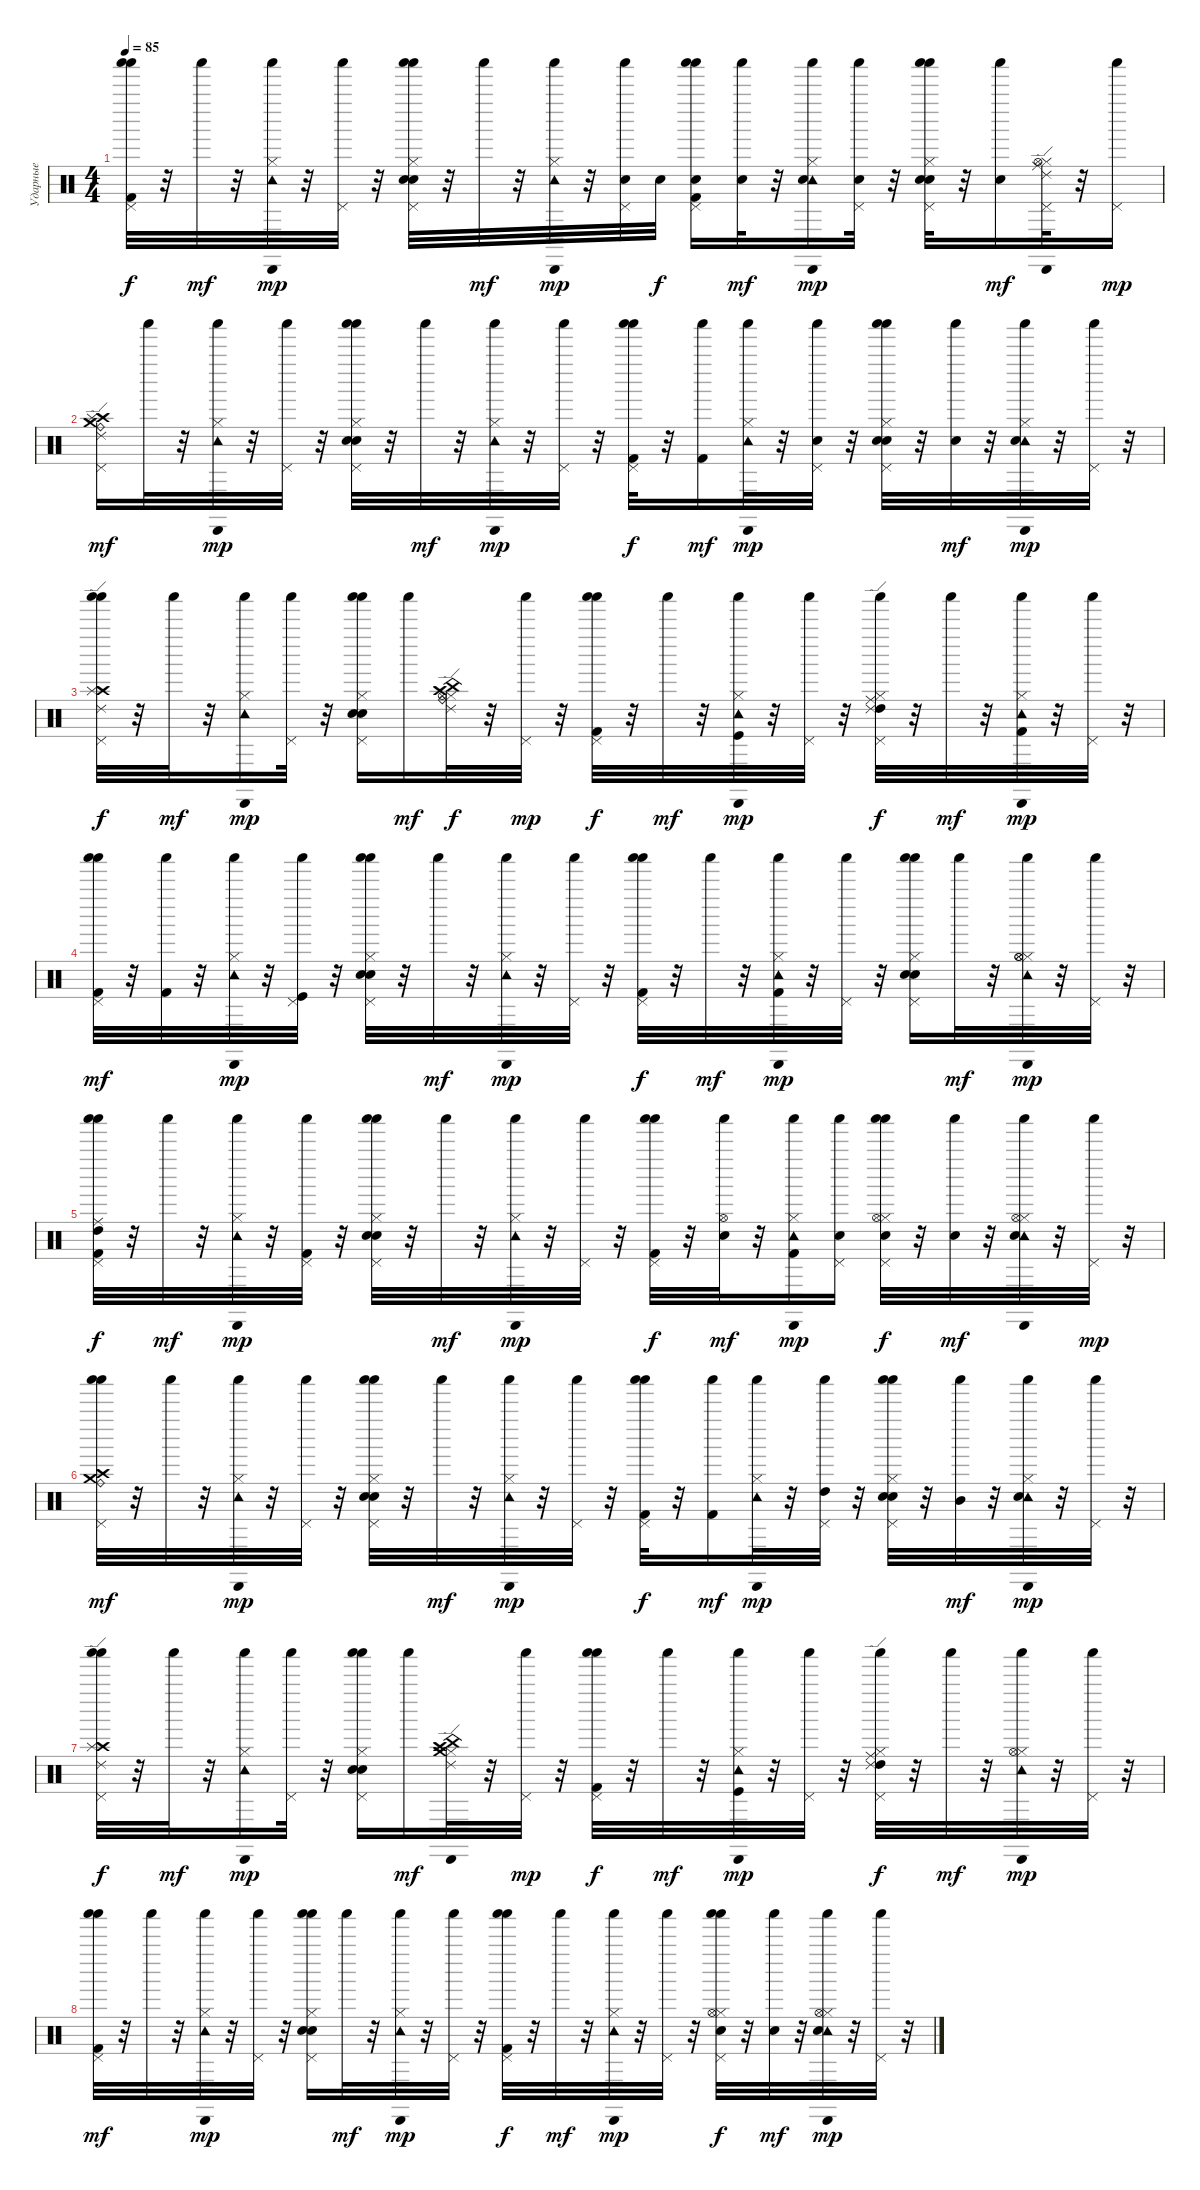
\track ("Ударные" "Ударные") {instrument percussion}
\staff {score}
\articulation defaults
\ts (4 4)
\tempo 85
\clef neutral
\ks c
("Pedal Hi-Hat (hit)" "Shaker (hit)" "Shaker (hit)" "Kick (hit) 2").32{dy f} r.32 "Shaker (hit)".32{dy mf} r.32 ("Hi-Hat (closed)" "Cabasa (hit)" "Shaker (hit)" "Tambourine (hit)").32{dy mp} r.32 ("Pedal Hi-Hat (hit)" "Shaker (hit)").32 r.32 ("Hi-Hat (closed)" "Pedal Hi-Hat (hit)" "Shaker (hit)" "Shaker (hit)" "Snare (hit) 2" "Electric Snare (hit)").32 r.32 "Shaker (hit)".32{dy mf} r.32 ("Hi-Hat (closed)" "Cabasa (hit)" "Shaker (hit)" "Tambourine (hit)").32{dy mp} r.32 ("Pedal Hi-Hat (hit)" "Shaker (hit)" "Snare (hit) 2").32 "Snare (hit) 2".32{dy f} ("Pedal Hi-Hat (hit)" "Shaker (hit)" "Shaker (hit)" "Kick (hit) 2" "Snare (hit) 2").16 ("Shaker (hit)" "Snare (hit) 2").32{dy mf} r.32 ("Hi-Hat (closed)" "Cabasa (hit)" "Shaker (hit)" "Tambourine (hit)" "Electric Snare (hit)").16{dy mp} ("Pedal Hi-Hat (hit)" "Shaker (hit)" "Snare (hit) 2").32 r.32 ("Hi-Hat (closed)" "Pedal Hi-Hat (hit)" "Shaker (hit)" "Shaker (hit)" "Snare (hit) 2" "Electric Snare (hit)").32 r.32 ("Shaker (hit)" "Snare (hit) 2").16{dy mf} ("Ride (middle)" "Hi-Hat (closed)" "Hi-Hat (open)" "Ride (edge) 2" "Cabasa (hit)" "Pedal Hi-Hat (hit)").32 r.32 ("Pedal Hi-Hat (hit)" "Shaker (hit)").16{dy mp} |
("Ride (bell)" "Crash high (hit)" "Splash (hit)" "Ride (edge) 2" "Crash medium (hit)" "Pedal Hi-Hat (hit)").16{dy mf} "Shaker (hit)".32 r.32 ("Hi-Hat (closed)" "Cabasa (hit)" "Shaker (hit)" "Tambourine (hit)").32{dy mp} r.32 ("Pedal Hi-Hat (hit)" "Shaker (hit)").32 r.32 ("Hi-Hat (closed)" "Pedal Hi-Hat (hit)" "Shaker (hit)" "Shaker (hit)" "Snare (hit) 2" "Electric Snare (hit)").32 r.32 "Shaker (hit)".32{dy mf} r.32 ("Hi-Hat (closed)" "Cabasa (hit)" "Shaker (hit)" "Tambourine (hit)").32{dy mp} r.32 ("Pedal Hi-Hat (hit)" "Shaker (hit)").32 r.32 ("Pedal Hi-Hat (hit)" "Shaker (hit)" "Shaker (hit)" "Kick (hit) 2").32{dy f} r.32 ("Shaker (hit)" "Kick (hit) 2").16{dy mf} ("Hi-Hat (closed)" "Cabasa (hit)" "Shaker (hit)" "Tambourine (hit)").32{dy mp} r.32 ("Pedal Hi-Hat (hit)" "Shaker (hit)" "Snare (hit) 2").32 r.32 ("Hi-Hat (closed)" "Pedal Hi-Hat (hit)" "Shaker (hit)" "Shaker (hit)" "Snare (hit) 2" "Electric Snare (hit)").32 r.32 ("Shaker (hit)" "Snare (hit) 2").32{dy mf} r.32 ("Hi-Hat (closed)" "Cabasa (hit)" "Shaker (hit)" "Tambourine (hit)" "Snare (hit) 2").32{dy mp} r.32 ("Pedal Hi-Hat (hit)" "Shaker (hit)").32 r.32 |
("Crash high (hit)" "Splash (hit)" "Ride (edge) 2" "Pedal Hi-Hat (hit)" "Shaker (hit)" "Shaker (hit)").32{dy f} r.32 "Shaker (hit)".32{dy mf} r.32 ("Hi-Hat (closed)" "Cabasa (hit)" "Shaker (hit)" "Tambourine (hit)").16{dy mp} ("Pedal Hi-Hat (hit)" "Shaker (hit)").32 r.32 ("Hi-Hat (closed)" "Pedal Hi-Hat (hit)" "Shaker (hit)" "Shaker (hit)" "Snare (hit) 2" "Electric Snare (hit)").16 "Shaker (hit)".16{dy mf} ("Ride (bell)" "Hi-Hat (closed)" "Hi-Hat (open)" "Crash high (hit)" "China (hit)" "Ride (edge) 2").32{dy f} r.32 ("Pedal Hi-Hat (hit)" "Shaker (hit)").32{dy mp} r.32 ("Pedal Hi-Hat (hit)" "Shaker (hit)" "Shaker (hit)" "Kick (hit) 2").32{dy f} r.32 "Shaker (hit)".32{dy mf} r.32 ("Hi-Hat (closed)" "Cabasa (hit)" "Shaker (hit)" "Kick (hit)" "Tambourine (hit)").32{dy mp} r.32 ("Pedal Hi-Hat (hit)" "Shaker (hit)").32 r.32 ("High Tom (hit)" "Ride (middle)" "Hi-Hat (closed)" "Ride (edge) 2" "Pedal Hi-Hat (hit)" "Shaker (hit)").32{dy f} r.32 "Shaker (hit)".32{dy mf} r.32 ("Hi-Hat (closed)" "Cabasa (hit)" "Shaker (hit)" "Kick (hit) 2" "Tambourine (hit)").32{dy mp} r.32 ("Pedal Hi-Hat (hit)" "Shaker (hit)").32 r.32 |
("Pedal Hi-Hat (hit)" "Shaker (hit)" "Shaker (hit)" "Kick (hit) 2").32{dy mf} r.32 ("Shaker (hit)" "Kick (hit) 2").32 r.32 ("Hi-Hat (closed)" "Cabasa (hit)" "Shaker (hit)" "Tambourine (hit)").32{dy mp} r.32 ("Pedal Hi-Hat (hit)" "Shaker (hit)" "Kick (hit)").32 r.32 ("Hi-Hat (closed)" "Pedal Hi-Hat (hit)" "Shaker (hit)" "Shaker (hit)" "Snare (hit) 2" "Electric Snare (hit)").32 r.32 "Shaker (hit)".32{dy mf} r.32 ("Hi-Hat (closed)" "Cabasa (hit)" "Shaker (hit)" "Tambourine (hit)").32{dy mp} r.32 ("Pedal Hi-Hat (hit)" "Shaker (hit)").32 r.32 ("Pedal Hi-Hat (hit)" "Shaker (hit)" "Shaker (hit)" "Kick (hit) 2").32{dy f} r.32 "Shaker (hit)".32{dy mf} r.32 ("Hi-Hat (closed)" "Cabasa (hit)" "Shaker (hit)" "Kick (hit) 2" "Tambourine (hit)").32{dy mp} r.32 ("Pedal Hi-Hat (hit)" "Shaker (hit)").32 r.32 ("Hi-Hat (closed)" "Pedal Hi-Hat (hit)" "Shaker (hit)" "Shaker (hit)" "Snare (hit) 2" "Electric Snare (hit)").16 "Shaker (hit)".32{dy mf} r.32 ("Hi-Hat (closed)" "Hi-Hat (open)" "Hi-Hat (open)" "Cabasa (hit)" "Shaker (hit)" "Tambourine (hit)").32{dy mp} r.32 ("Pedal Hi-Hat (hit)" "Shaker (hit)").32 r.32 |
("High Tom (hit)" "Ride (middle)" "Pedal Hi-Hat (hit)" "Shaker (hit)" "Shaker (hit)" "Kick (hit) 2").32{dy f} r.32 "Shaker (hit)".32{dy mf} r.32 ("Hi-Hat (closed)" "Cabasa (hit)" "Shaker (hit)" "Tambourine (hit)").32{dy mp} r.32 ("Pedal Hi-Hat (hit)" "Shaker (hit)" "Kick (hit) 2").32 r.32 ("Hi-Hat (closed)" "Pedal Hi-Hat (hit)" "Shaker (hit)" "Shaker (hit)" "Snare (hit) 2" "Electric Snare (hit)").32 r.32 "Shaker (hit)".32{dy mf} r.32 ("Hi-Hat (closed)" "Cabasa (hit)" "Shaker (hit)" "Tambourine (hit)").32{dy mp} r.32 ("Pedal Hi-Hat (hit)" "Shaker (hit)").32 r.32 ("Pedal Hi-Hat (hit)" "Shaker (hit)" "Shaker (hit)" "Kick (hit) 2").32{dy f} r.32 ("Hi-Hat (open)" "Shaker (hit)" "Snare (hit) 2").32{dy mf} r.32 ("Hi-Hat (closed)" "Cabasa (hit)" "Shaker (hit)" "Kick (hit) 2" "Tambourine (hit)").16{dy mp} ("Pedal Hi-Hat (hit)" "Shaker (hit)" "Electric Snare (hit)").16 ("Hi-Hat (closed)" "Hi-Hat (open)" "Pedal Hi-Hat (hit)" "Shaker (hit)" "Shaker (hit)" "Snare (hit) 2").32{dy f} r.32 ("Shaker (hit)" "Snare (hit) 2").32{dy mf} r.32 ("Hi-Hat (closed)" "Hi-Hat (open)" "Cabasa (hit)" "Shaker (hit)" "Tambourine (hit)" "Snare (hit) 2").32 r.32 ("Pedal Hi-Hat (hit)" "Shaker (hit)").32{dy mp} r.32 |
("Ride (bell)" "Crash high (hit)" "Crash medium (hit)" "Pedal Hi-Hat (hit)" "Shaker (hit)" "Shaker (hit)").32{dy mf} r.32 "Shaker (hit)".32 r.32 ("Hi-Hat (closed)" "Cabasa (hit)" "Shaker (hit)" "Tambourine (hit)").32{dy mp} r.32 ("Pedal Hi-Hat (hit)" "Shaker (hit)").32 r.32 ("Hi-Hat (closed)" "Pedal Hi-Hat (hit)" "Shaker (hit)" "Shaker (hit)" "Snare (hit) 2" "Electric Snare (hit)").32 r.32 "Shaker (hit)".32{dy mf} r.32 ("Hi-Hat (closed)" "Cabasa (hit)" "Shaker (hit)" "Tambourine (hit)").32{dy mp} r.32 ("Pedal Hi-Hat (hit)" "Shaker (hit)").32 r.32 ("Pedal Hi-Hat (hit)" "Shaker (hit)" "Shaker (hit)" "Kick (hit) 2").32{dy f} r.32 ("Shaker (hit)" "Kick (hit) 2").16{dy mf} ("Hi-Hat (closed)" "Cabasa (hit)" "Shaker (hit)" "Tambourine (hit)").32{dy mp} r.32 ("High Tom (hit)" "Pedal Hi-Hat (hit)" "Shaker (hit)").32 r.32 ("Hi-Hat (closed)" "Pedal Hi-Hat (hit)" "Shaker (hit)" "Shaker (hit)" "Snare (hit) 2" "Electric Snare (hit)").32 r.32 ("Mid Tom (hit)" "Shaker (hit)").32{dy mf} r.32 ("Hi-Hat (closed)" "Cabasa (hit)" "Shaker (hit)" "Tambourine (hit)" "Snare (hit) 2").32{dy mp} r.32 ("Pedal Hi-Hat (hit)" "Shaker (hit)").32 r.32 |
("Crash high (hit)" "Splash (hit)" "Ride (edge) 2" "Pedal Hi-Hat (hit)" "Shaker (hit)" "Shaker (hit)").32{dy f} r.32 "Shaker (hit)".32{dy mf} r.32 ("Hi-Hat (closed)" "Cabasa (hit)" "Shaker (hit)" "Tambourine (hit)").16{dy mp} ("Pedal Hi-Hat (hit)" "Shaker (hit)").32 r.32 ("Hi-Hat (closed)" "Pedal Hi-Hat (hit)" "Shaker (hit)" "Shaker (hit)" "Snare (hit) 2" "Electric Snare (hit)").16 "Shaker (hit)".16{dy mf} ("Hi-Hat (closed)" "Crash high (hit)" "China (hit)" "Ride (edge) 2" "Crash medium (hit)" "Cabasa (hit)").32 r.32 ("Pedal Hi-Hat (hit)" "Shaker (hit)").32{dy mp} r.32 ("Pedal Hi-Hat (hit)" "Shaker (hit)" "Shaker (hit)" "Kick (hit) 2").32{dy f} r.32 "Shaker (hit)".32{dy mf} r.32 ("Hi-Hat (closed)" "Cabasa (hit)" "Shaker (hit)" "Kick (hit)" "Tambourine (hit)").32{dy mp} r.32 ("Pedal Hi-Hat (hit)" "Shaker (hit)").32 r.32 ("High Tom (hit)" "Ride (middle)" "Hi-Hat (closed)" "Ride (edge) 2" "Pedal Hi-Hat (hit)" "Shaker (hit)").32{dy f} r.32 "Shaker (hit)".32{dy mf} r.32 ("Hi-Hat (closed)" "Hi-Hat (open)" "Cabasa (hit)" "Shaker (hit)" "Tambourine (hit)").32{dy mp} r.32 ("Pedal Hi-Hat (hit)" "Shaker (hit)").32 r.32 |
("Pedal Hi-Hat (hit)" "Shaker (hit)" "Shaker (hit)" "Kick (hit) 2").32{dy mf} r.32 "Shaker (hit)".32 r.32 ("Hi-Hat (closed)" "Cabasa (hit)" "Shaker (hit)" "Tambourine (hit)").32{dy mp} r.32 ("Pedal Hi-Hat (hit)" "Shaker (hit)").32 r.32 ("Hi-Hat (closed)" "Pedal Hi-Hat (hit)" "Shaker (hit)" "Shaker (hit)" "Snare (hit) 2" "Electric Snare (hit)").16 "Shaker (hit)".32{dy mf} r.32 ("Hi-Hat (closed)" "Cabasa (hit)" "Shaker (hit)" "Tambourine (hit)").32{dy mp} r.32 ("Pedal Hi-Hat (hit)" "Shaker (hit)").32 r.32 ("Pedal Hi-Hat (hit)" "Shaker (hit)" "Shaker (hit)" "Kick (hit) 2").32{dy f} r.32 "Shaker (hit)".32{dy mf} r.32 ("Hi-Hat (closed)" "Cabasa (hit)" "Shaker (hit)" "Tambourine (hit)").32{dy mp} r.32 ("Pedal Hi-Hat (hit)" "Shaker (hit)").32 r.32 ("Hi-Hat (closed)" "Hi-Hat (open)" "Pedal Hi-Hat (hit)" "Shaker (hit)" "Shaker (hit)" "Snare (hit) 2").32{dy f} r.32 ("Shaker (hit)" "Snare (hit) 2").32{dy mf} r.32 ("Hi-Hat (closed)" "Hi-Hat (open)" "Cabasa (hit)" "Shaker (hit)" "Tambourine (hit)" "Snare (hit) 2").32{dy mp} r.32 ("Pedal Hi-Hat (hit)" "Shaker (hit)").32 r.32
